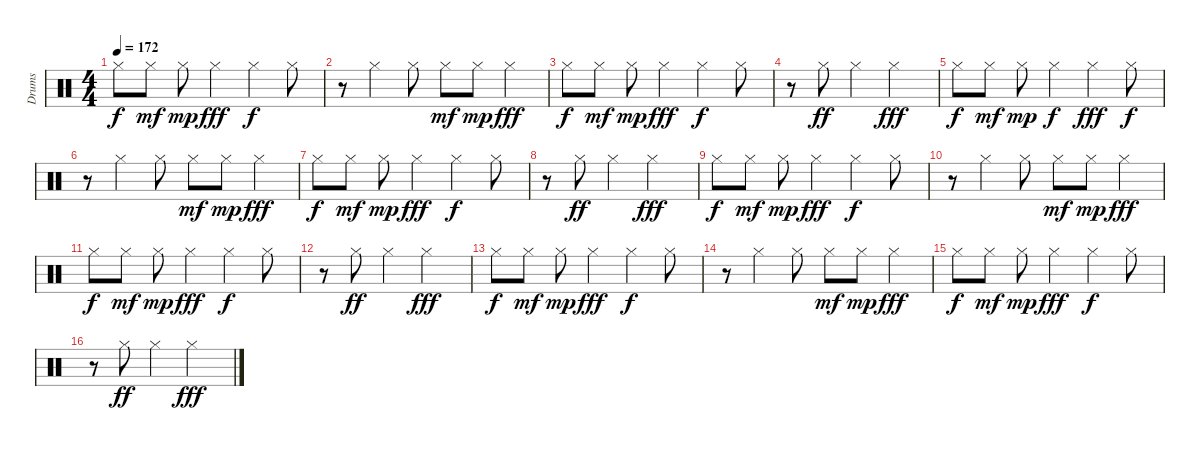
\track ("Drums" "Drums") {instrument percussion}
\staff {score}
\articulation defaults
\ts (4 4)
\tempo 172
\clef neutral
\ks c "Hi-Hat (closed)".8{dy f} "Hi-Hat (closed)".8{dy mf} "Hi-Hat (closed)".8{dy mp} "Hi-Hat (closed)".4{dy fff} "Hi-Hat (closed)".4{dy f} "Hi-Hat (closed)".8
|
r.8 "Hi-Hat (closed)".4 "Hi-Hat (closed)".8 "Hi-Hat (closed)".8{dy mf} "Hi-Hat (closed)".8{dy mp} "Hi-Hat (closed)".4{dy fff} |
"Hi-Hat (closed)".8{dy f} "Hi-Hat (closed)".8{dy mf} "Hi-Hat (closed)".8{dy mp} "Hi-Hat (closed)".4{dy fff} "Hi-Hat (closed)".4{dy f} "Hi-Hat (closed)".8 |
r.8 "Hi-Hat (closed)".8{dy ff} "Hi-Hat (closed)".4 "Hi-Hat (closed)".2{dy fff} |
"Hi-Hat (closed)".8{dy f} "Hi-Hat (closed)".8{dy mf} "Hi-Hat (closed)".8{dy mp} "Hi-Hat (closed)".4{dy f} "Hi-Hat (closed)".4{dy fff} "Hi-Hat (closed)".8{dy f} |
r.8 "Hi-Hat (closed)".4 "Hi-Hat (closed)".8 "Hi-Hat (closed)".8{dy mf} "Hi-Hat (closed)".8{dy mp} "Hi-Hat (closed)".4{dy fff} |
"Hi-Hat (closed)".8{dy f} "Hi-Hat (closed)".8{dy mf} "Hi-Hat (closed)".8{dy mp} "Hi-Hat (closed)".4{dy fff} "Hi-Hat (closed)".4{dy f} "Hi-Hat (closed)".8 |
r.8 "Hi-Hat (closed)".8{dy ff} "Hi-Hat (closed)".4 "Hi-Hat (closed)".2{dy fff} |
"Hi-Hat (closed)".8{dy f} "Hi-Hat (closed)".8{dy mf} "Hi-Hat (closed)".8{dy mp} "Hi-Hat (closed)".4{dy fff} "Hi-Hat (closed)".4{dy f} "Hi-Hat (closed)".8 |
r.8 "Hi-Hat (closed)".4 "Hi-Hat (closed)".8 "Hi-Hat (closed)".8{dy mf} "Hi-Hat (closed)".8{dy mp} "Hi-Hat (closed)".4{dy fff} |
"Hi-Hat (closed)".8{dy f} "Hi-Hat (closed)".8{dy mf} "Hi-Hat (closed)".8{dy mp} "Hi-Hat (closed)".4{dy fff} "Hi-Hat (closed)".4{dy f} "Hi-Hat (closed)".8 |
r.8 "Hi-Hat (closed)".8{dy ff} "Hi-Hat (closed)".4 "Hi-Hat (closed)".2{dy fff} |
"Hi-Hat (closed)".8{dy f} "Hi-Hat (closed)".8{dy mf} "Hi-Hat (closed)".8{dy mp} "Hi-Hat (closed)".4{dy fff} "Hi-Hat (closed)".4{dy f} "Hi-Hat (closed)".8 |
r.8 "Hi-Hat (closed)".4 "Hi-Hat (closed)".8 "Hi-Hat (closed)".8{dy mf} "Hi-Hat (closed)".8{dy mp} "Hi-Hat (closed)".4{dy fff} |
"Hi-Hat (closed)".8{dy f} "Hi-Hat (closed)".8{dy mf} "Hi-Hat (closed)".8{dy mp} "Hi-Hat (closed)".4{dy fff} "Hi-Hat (closed)".4{dy f} "Hi-Hat (closed)".8 |
r.8 "Hi-Hat (closed)".8{dy ff} "Hi-Hat (closed)".4 "Hi-Hat (closed)".2{dy fff}
